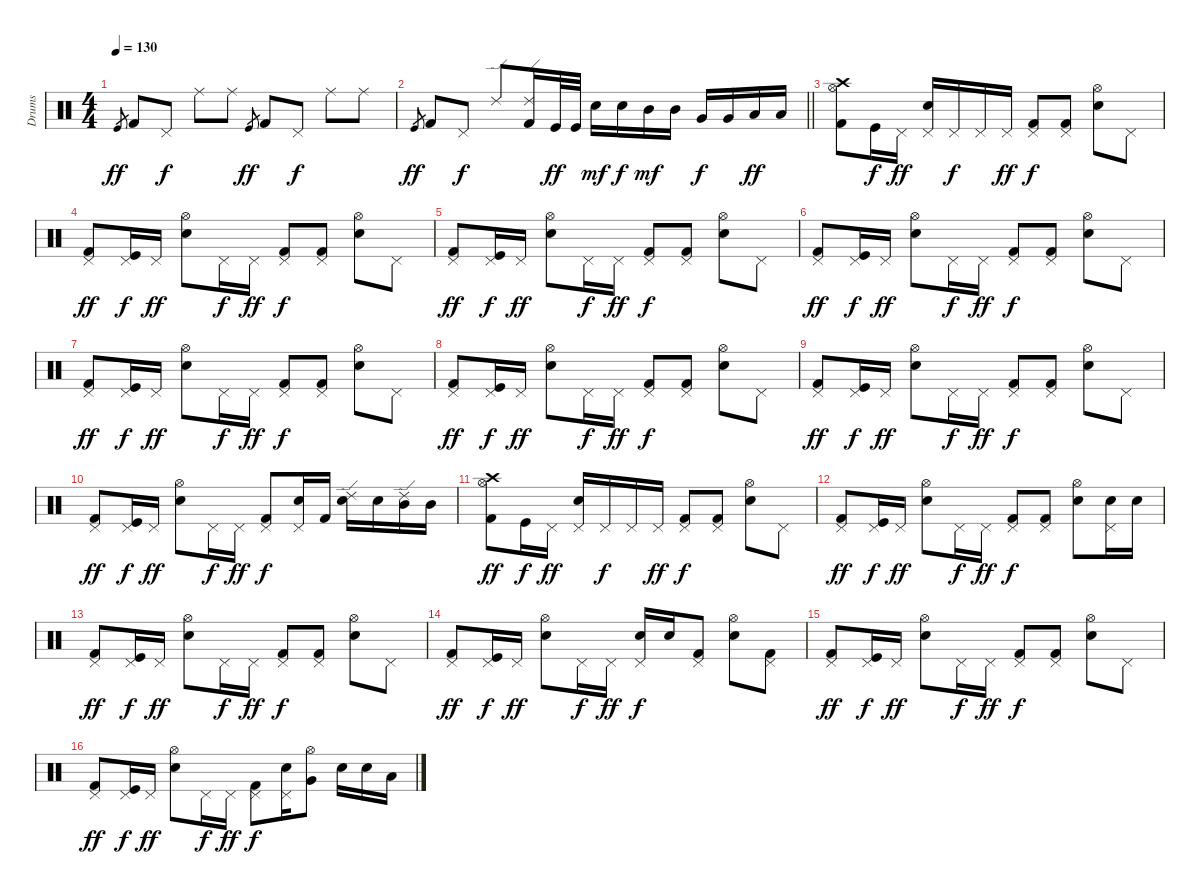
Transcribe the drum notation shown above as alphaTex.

\track ("Drums" "Drums") {instrument percussion}
\staff {score}
\articulation defaults
\ts (4 4)
\tempo 130
\clef neutral
\ks c "Kick (hit)".8{gr dy ff} "Kick (hit) 2".8 "Pedal Hi-Hat (hit)".8{dy f} "Ride (middle)".8 "Ride (middle)".8 "Kick (hit)".8{gr dy ff} "Kick (hit) 2".8 "Pedal Hi-Hat (hit)".8{dy f} "Ride (middle)".8 "Ride (middle)".8
|
\barLineRight lightlight "Kick (hit)".8{gr dy ff} "Kick (hit) 2".8 "Pedal Hi-Hat (hit)".8{dy f} "Ride (edge) 2".8
("Ride (edge) 2" "Kick (hit) 2").16 "Kick (hit)".32{dy ff} "Kick (hit)".32 "Electric Snare (hit)".16{dy mf} "Electric Snare (hit)".16{dy f} "Mid Tom (hit)".16{dy mf} "Mid Tom (hit)".16 "Very Low Tom (hit)".16{dy f} "Very Low Tom (hit)".16 "Low Floor Tom (hit)".16{dy ff} "Low Floor Tom (hit)".16 |
("Crash high (hit)" "Kick (hit) 2" "Hi-Hat (open)").8 "Kick (hit)".16{dy f} "Pedal Hi-Hat (hit)".16{dy ff} ("Pedal Hi-Hat (hit)" "Snare (hit) 2").16 "Pedal Hi-Hat (hit)".16{dy f} "Pedal Hi-Hat (hit)".16 "Pedal Hi-Hat (hit)".16{dy ff} ("Pedal Hi-Hat (hit)" "Kick (hit) 2").8{dy f} ("Pedal Hi-Hat (hit)" "Kick (hit) 2").8 ("Hi-Hat (open)" "Snare (hit) 2").8 "Pedal Hi-Hat (hit)".8 |
("Pedal Hi-Hat (hit)" "Kick (hit) 2").8{dy ff} ("Pedal Hi-Hat (hit)" "Kick (hit)").16{dy f} "Pedal Hi-Hat (hit)".16{dy ff} ("Hi-Hat (open)" "Snare (hit) 2").8 "Pedal Hi-Hat (hit)".16{dy f} "Pedal Hi-Hat (hit)".16{dy ff} ("Pedal Hi-Hat (hit)" "Kick (hit) 2").8{dy f} ("Pedal Hi-Hat (hit)" "Kick (hit) 2").8 ("Hi-Hat (open)" "Snare (hit) 2").8 "Pedal Hi-Hat (hit)".8 |
("Pedal Hi-Hat (hit)" "Kick (hit) 2").8{dy ff} ("Pedal Hi-Hat (hit)" "Kick (hit)").16{dy f} "Pedal Hi-Hat (hit)".16{dy ff} ("Hi-Hat (open)" "Snare (hit) 2").8 "Pedal Hi-Hat (hit)".16{dy f} "Pedal Hi-Hat (hit)".16{dy ff} ("Pedal Hi-Hat (hit)" "Kick (hit) 2").8{dy f} ("Pedal Hi-Hat (hit)" "Kick (hit) 2").8 ("Hi-Hat (open)" "Snare (hit) 2").8 "Pedal Hi-Hat (hit)".8 |
("Pedal Hi-Hat (hit)" "Kick (hit) 2").8{dy ff} ("Pedal Hi-Hat (hit)" "Kick (hit)").16{dy f} "Pedal Hi-Hat (hit)".16{dy ff} ("Hi-Hat (open)" "Snare (hit) 2").8 "Pedal Hi-Hat (hit)".16{dy f} "Pedal Hi-Hat (hit)".16{dy ff} ("Pedal Hi-Hat (hit)" "Kick (hit) 2").8{dy f} ("Pedal Hi-Hat (hit)" "Kick (hit) 2").8 ("Hi-Hat (open)" "Snare (hit) 2").8 "Pedal Hi-Hat (hit)".8 |
("Pedal Hi-Hat (hit)" "Kick (hit) 2").8{dy ff} ("Pedal Hi-Hat (hit)" "Kick (hit)").16{dy f} "Pedal Hi-Hat (hit)".16{dy ff} ("Hi-Hat (open)" "Snare (hit) 2").8 "Pedal Hi-Hat (hit)".16{dy f} "Pedal Hi-Hat (hit)".16{dy ff} ("Pedal Hi-Hat (hit)" "Kick (hit) 2").8{dy f} ("Pedal Hi-Hat (hit)" "Kick (hit) 2").8 ("Hi-Hat (open)" "Snare (hit) 2").8 "Pedal Hi-Hat (hit)".8 |
("Pedal Hi-Hat (hit)" "Kick (hit) 2").8{dy ff} ("Pedal Hi-Hat (hit)" "Kick (hit)").16{dy f} "Pedal Hi-Hat (hit)".16{dy ff} ("Hi-Hat (open)" "Snare (hit) 2").8 "Pedal Hi-Hat (hit)".16{dy f} "Pedal Hi-Hat (hit)".16{dy ff} ("Pedal Hi-Hat (hit)" "Kick (hit) 2").8{dy f} ("Pedal Hi-Hat (hit)" "Kick (hit) 2").8 ("Hi-Hat (open)" "Snare (hit) 2").8 "Pedal Hi-Hat (hit)".8 |
("Pedal Hi-Hat (hit)" "Kick (hit) 2").8{dy ff} ("Pedal Hi-Hat (hit)" "Kick (hit)").16{dy f} "Pedal Hi-Hat (hit)".16{dy ff} ("Hi-Hat (open)" "Snare (hit) 2").8 "Pedal Hi-Hat (hit)".16{dy f} "Pedal Hi-Hat (hit)".16{dy ff} ("Pedal Hi-Hat (hit)" "Kick (hit) 2").8{dy f} ("Pedal Hi-Hat (hit)" "Kick (hit) 2").8 ("Hi-Hat (open)" "Snare (hit) 2").8 "Pedal Hi-Hat (hit)".8 |
("Pedal Hi-Hat (hit)" "Kick (hit) 2").8{dy ff} ("Pedal Hi-Hat (hit)" "Kick (hit)").16{dy f} "Pedal Hi-Hat (hit)".16{dy ff} ("Hi-Hat (open)" "Snare (hit) 2").8 "Pedal Hi-Hat (hit)".16{dy f} "Pedal Hi-Hat (hit)".16{dy ff} ("Pedal Hi-Hat (hit)" "Kick (hit) 2").8{dy f} ("Pedal Hi-Hat (hit)" "Snare (hit) 2").16 "Kick (hit) 2".16 ("Ride (edge) 2" "Snare (hit) 2").16 "Snare (hit) 2".16 ("Ride (edge) 2" "Mid Tom (hit)").16 "Mid Tom (hit)".16 |
("Crash high (hit)" "Kick (hit) 2" "Hi-Hat (open)").8{dy ff} "Kick (hit)".16{dy f} "Pedal Hi-Hat (hit)".16{dy ff} ("Pedal Hi-Hat (hit)" "Snare (hit) 2").16 "Pedal Hi-Hat (hit)".16{dy f} "Pedal Hi-Hat (hit)".16 "Pedal Hi-Hat (hit)".16{dy ff} ("Pedal Hi-Hat (hit)" "Kick (hit) 2").8{dy f} ("Pedal Hi-Hat (hit)" "Kick (hit) 2").8 ("Hi-Hat (open)" "Snare (hit) 2").8 "Pedal Hi-Hat (hit)".8 |
("Pedal Hi-Hat (hit)" "Kick (hit) 2").8{dy ff} ("Pedal Hi-Hat (hit)" "Kick (hit)").16{dy f} "Pedal Hi-Hat (hit)".16{dy ff} ("Hi-Hat (open)" "Snare (hit) 2").8 "Pedal Hi-Hat (hit)".16{dy f} "Pedal Hi-Hat (hit)".16{dy ff} ("Pedal Hi-Hat (hit)" "Kick (hit) 2").8{dy f} ("Pedal Hi-Hat (hit)" "Kick (hit) 2").8 ("Hi-Hat (open)" "Snare (hit) 2").8 ("Pedal Hi-Hat (hit)" "Snare (hit) 2").16 "Snare (hit) 2".16 |
("Pedal Hi-Hat (hit)" "Kick (hit) 2").8{dy ff} ("Pedal Hi-Hat (hit)" "Kick (hit)").16{dy f} "Pedal Hi-Hat (hit)".16{dy ff} ("Hi-Hat (open)" "Snare (hit) 2").8 "Pedal Hi-Hat (hit)".16{dy f} "Pedal Hi-Hat (hit)".16{dy ff} ("Pedal Hi-Hat (hit)" "Kick (hit) 2").8{dy f} ("Pedal Hi-Hat (hit)" "Kick (hit) 2").8 ("Hi-Hat (open)" "Snare (hit) 2").8 "Pedal Hi-Hat (hit)".8 |
("Pedal Hi-Hat (hit)" "Kick (hit) 2").8{dy ff} ("Pedal Hi-Hat (hit)" "Kick (hit)").16{dy f} "Pedal Hi-Hat (hit)".16{dy ff} ("Hi-Hat (open)" "Snare (hit) 2").8 "Pedal Hi-Hat (hit)".16{dy f} "Pedal Hi-Hat (hit)".16{dy ff} ("Pedal Hi-Hat (hit)" "Snare (hit) 2").16{dy f} "Snare (hit) 2".16 ("Pedal Hi-Hat (hit)" "Kick (hit) 2").8 ("Hi-Hat (open)" "Snare (hit) 2").8 ("Pedal Hi-Hat (hit)" "Kick (hit) 2").8 |
("Pedal Hi-Hat (hit)" "Kick (hit) 2").8{dy ff} ("Pedal Hi-Hat (hit)" "Kick (hit)").16{dy f} "Pedal Hi-Hat (hit)".16{dy ff} ("Hi-Hat (open)" "Snare (hit) 2").8 "Pedal Hi-Hat (hit)".16{dy f} "Pedal Hi-Hat (hit)".16{dy ff} ("Pedal Hi-Hat (hit)" "Kick (hit) 2").8{dy f} ("Pedal Hi-Hat (hit)" "Kick (hit) 2").8 ("Hi-Hat (open)" "Snare (hit) 2").8 "Pedal Hi-Hat (hit)".8 |
("Pedal Hi-Hat (hit)" "Kick (hit) 2").8{dy ff} ("Pedal Hi-Hat (hit)" "Kick (hit)").16{dy f} "Pedal Hi-Hat (hit)".16{dy ff} ("Hi-Hat (open)" "Snare (hit) 2").8 "Pedal Hi-Hat (hit)".16{dy f} "Pedal Hi-Hat (hit)".16{dy ff} ("Pedal Hi-Hat (hit)" "Kick (hit) 2").8{dy f} ("Pedal Hi-Hat (hit)" "Snare (hit) 2").16 ("Hi-Hat (open)" "Very Low Tom (hit)").8 "Snare (hit) 2".16 "Snare (hit) 2".16 "Low Floor Tom (hit)".16
